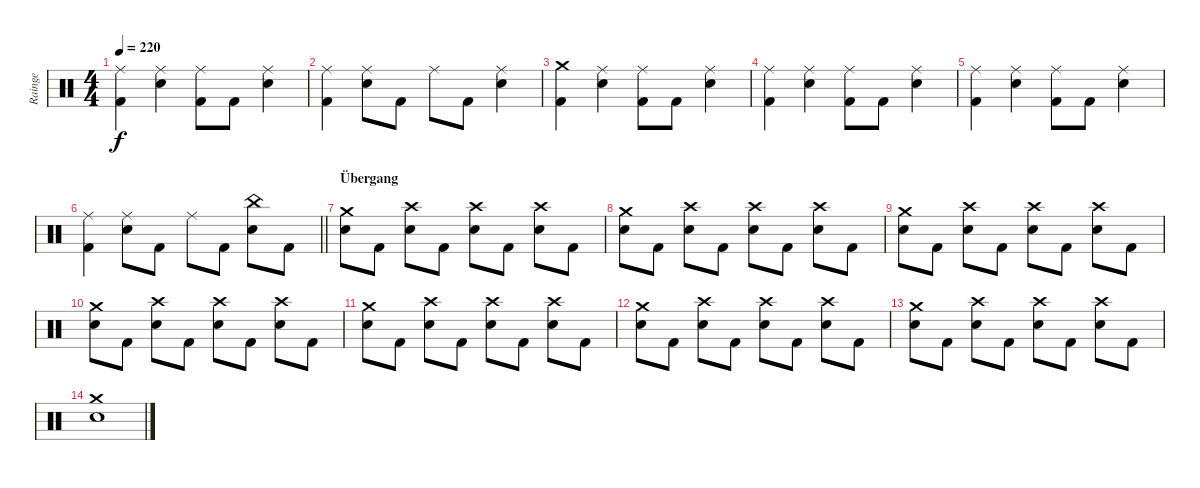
\track ("Rainge" "Rainge") {instrument percussion}
\staff {score}
\articulation defaults
\ts (4 4)
\tempo 220
\clef neutral
\ks c
("Ride (middle)" "Kick (hit) 2").4{dy f} ("Ride (middle)" "Electric Snare (hit)").4 ("Ride (middle)" "Kick (hit) 2").8 "Kick (hit) 2".8 ("Ride (middle)" "Electric Snare (hit)").4 |
("Ride (middle)" "Kick (hit) 2").4 ("Ride (middle)" "Electric Snare (hit)").8 "Kick (hit) 2".8 "Ride (middle)".8 "Kick (hit) 2".8 ("Ride (middle)" "Electric Snare (hit)").4 |
("Crash medium (hit)" "Kick (hit) 2").4 ("Ride (middle)" "Electric Snare (hit)").4 ("Ride (middle)" "Kick (hit) 2").8 "Kick (hit) 2".8 ("Ride (middle)" "Electric Snare (hit)").4 |
("Ride (middle)" "Kick (hit) 2").4 ("Ride (middle)" "Electric Snare (hit)").4 ("Ride (middle)" "Kick (hit) 2").8 "Kick (hit) 2".8 ("Ride (middle)" "Electric Snare (hit)").4 |
("Ride (middle)" "Kick (hit) 2").4 ("Ride (middle)" "Electric Snare (hit)").4 ("Ride (middle)" "Kick (hit) 2").8 "Kick (hit) 2".8 ("Ride (middle)" "Electric Snare (hit)").4 |
\barLineRight lightlight
("Ride (middle)" "Kick (hit) 2").4 ("Ride (middle)" "Electric Snare (hit)").8 "Kick (hit) 2".8 "Ride (middle)".8 "Kick (hit) 2".8 ("China (hit)" "Electric Snare (hit)").8 "Kick (hit) 2".8 |
\section ("" "Übergang")
("Crash medium (hit)" "Electric Snare (hit)").8 "Kick (hit) 2".8 ("Crash high (hit)" "Electric Snare (hit)").8 "Kick (hit) 2".8 ("Crash high (hit)" "Electric Snare (hit)").8 "Kick (hit) 2".8 ("Crash high (hit)" "Electric Snare (hit)").8 "Kick (hit) 2".8 |
("Crash medium (hit)" "Electric Snare (hit)").8 "Kick (hit) 2".8 ("Crash high (hit)" "Electric Snare (hit)").8 "Kick (hit) 2".8 ("Crash high (hit)" "Electric Snare (hit)").8 "Kick (hit) 2".8 ("Crash high (hit)" "Electric Snare (hit)").8 "Kick (hit) 2".8 |
("Crash medium (hit)" "Electric Snare (hit)").8 "Kick (hit) 2".8 ("Crash high (hit)" "Electric Snare (hit)").8 "Kick (hit) 2".8 ("Crash high (hit)" "Electric Snare (hit)").8 "Kick (hit) 2".8 ("Crash high (hit)" "Electric Snare (hit)").8 "Kick (hit) 2".8 |
("Crash medium (hit)" "Electric Snare (hit)").8 "Kick (hit) 2".8 ("Crash high (hit)" "Electric Snare (hit)").8 "Kick (hit) 2".8 ("Crash high (hit)" "Electric Snare (hit)").8 "Kick (hit) 2".8 ("Crash high (hit)" "Electric Snare (hit)").8 "Kick (hit) 2".8 |
("Crash medium (hit)" "Electric Snare (hit)").8 "Kick (hit) 2".8 ("Crash high (hit)" "Electric Snare (hit)").8 "Kick (hit) 2".8 ("Crash high (hit)" "Electric Snare (hit)").8 "Kick (hit) 2".8 ("Crash high (hit)" "Electric Snare (hit)").8 "Kick (hit) 2".8 |
("Crash medium (hit)" "Electric Snare (hit)").8 "Kick (hit) 2".8 ("Crash high (hit)" "Electric Snare (hit)").8 "Kick (hit) 2".8 ("Crash high (hit)" "Electric Snare (hit)").8 "Kick (hit) 2".8 ("Crash high (hit)" "Electric Snare (hit)").8 "Kick (hit) 2".8 |
("Crash medium (hit)" "Electric Snare (hit)").8 "Kick (hit) 2".8 ("Crash high (hit)" "Electric Snare (hit)").8 "Kick (hit) 2".8 ("Crash high (hit)" "Electric Snare (hit)").8 "Kick (hit) 2".8 ("Crash high (hit)" "Electric Snare (hit)").8 "Kick (hit) 2".8 |
("Crash medium (hit)" "Electric Snare (hit)").1
